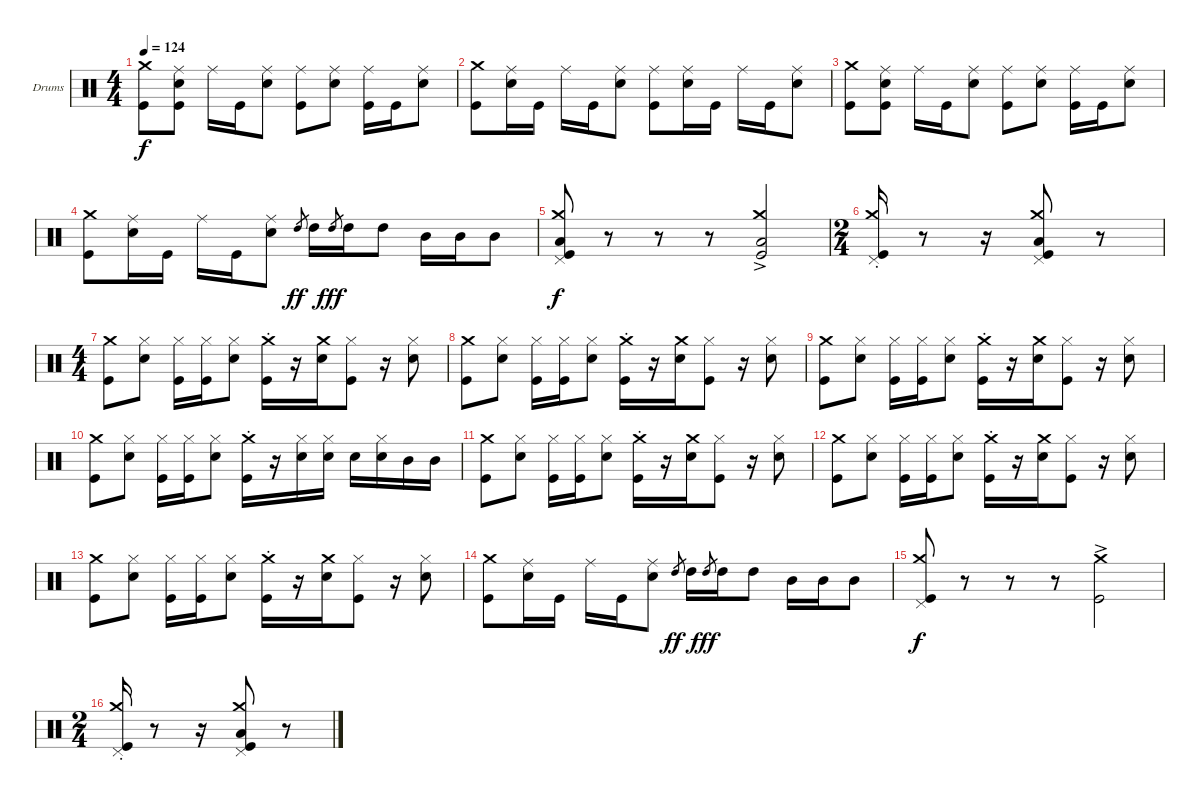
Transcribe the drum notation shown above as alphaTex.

\defaultSystemsLayout 4
\bracketExtendMode groupsimilarinstruments
\firstSystemTrackNameOrientation horizontal
\otherSystemsTrackNameOrientation horizontal
\track ("Drumkit" "Drums") {instrument percussion}
\staff {score}
\articulation defaults
\ts (4 4)
\tempo 124
\clef neutral
\ks c
("Kick (hit)" "Crash medium (hit)").8{dy f} ("Snare (hit) 2" "Ride (middle)" "Kick (hit)").8 "Ride (middle)".16 "Kick (hit)".16 ("Snare (hit) 2" "Ride (middle)").8 ("Kick (hit)" "Ride (middle)").8 ("Snare (hit) 2" "Ride (middle)").8 ("Kick (hit)" "Ride (middle)").16 "Kick (hit)".16 ("Snare (hit) 2" "Ride (middle)").8 |
("Kick (hit)" "Crash medium (hit)").8 ("Snare (hit) 2" "Ride (middle)").16 "Kick (hit)".16 "Ride (middle)".16 "Kick (hit)".16 ("Snare (hit) 2" "Ride (middle)").8 ("Kick (hit)" "Ride (middle)").8 ("Snare (hit) 2" "Ride (middle)").16 "Kick (hit)".16 "Ride (middle)".16 "Kick (hit)".16 ("Snare (hit) 2" "Ride (middle)").8 |
("Kick (hit)" "Crash medium (hit)").8 ("Snare (hit) 2" "Ride (middle)" "Kick (hit)").8 "Ride (middle)".16 "Kick (hit)".16 ("Snare (hit) 2" "Ride (middle)").8 ("Kick (hit)" "Ride (middle)").8 ("Snare (hit) 2" "Ride (middle)").8 ("Kick (hit)" "Ride (middle)").16 "Kick (hit)".16 ("Snare (hit) 2" "Ride (middle)").8 |
("Kick (hit)" "Crash medium (hit)").8 ("Snare (hit) 2" "Ride (middle)").16 "Kick (hit)".16 "Ride (middle)".16 "Kick (hit)".16 ("Snare (hit) 2" "Ride (middle)").8 "High Tom (hit)".8{gr dy ff} "High Tom (hit)".16 "High Tom (hit)".8{gr dy fff} "High Tom (hit)".16 "High Tom (hit)".8 "Mid Tom (hit)".16 "Mid Tom (hit)".16 "Mid Tom (hit)".8 |
("Kick (hit)" "Crash medium (hit)" "Pedal Hi-Hat (hit)" "Low Tom (hit)").8{dy f} r.8 r.8 r.8 ("Kick (hit)"{ac} "Crash medium (hit)"{ac} "Low Tom (hit)"{ac}).2 |
\ts (2 4)
("Kick (hit)" "Crash medium (hit)"{st} "Pedal Hi-Hat (hit)").16 r.8 r.16 ("Pedal Hi-Hat (hit)" "Kick (hit)" "Low Tom (hit)" "Crash medium (hit)").8 r.8 |
\ts (4 4)
("Kick (hit)" "Crash medium (hit)").8 ("Snare (hit) 2" "Hi-Hat (closed)").8 ("Hi-Hat (closed)" "Kick (hit)").16 ("Kick (hit)" "Hi-Hat (closed)").16 ("Snare (hit) 2" "Hi-Hat (closed)").8 ("Kick (hit)"{st} "Crash medium (hit)"{st}).16 r.16 ("Crash medium (hit)" "Snare (hit) 2").16 ("Kick (hit)" "Hi-Hat (closed)").8 r.16 ("Hi-Hat (closed)" "Snare (hit) 2").8 |
("Kick (hit)" "Crash medium (hit)").8 ("Snare (hit) 2" "Hi-Hat (closed)").8 ("Hi-Hat (closed)" "Kick (hit)").16 ("Kick (hit)" "Hi-Hat (closed)").16 ("Snare (hit) 2" "Hi-Hat (closed)").8 ("Kick (hit)"{st} "Crash medium (hit)"{st}).16 r.16 ("Crash medium (hit)" "Snare (hit) 2").16 ("Kick (hit)" "Hi-Hat (closed)").8 r.16 ("Hi-Hat (closed)" "Snare (hit) 2").8 |
("Kick (hit)" "Crash medium (hit)").8 ("Snare (hit) 2" "Hi-Hat (closed)").8 ("Hi-Hat (closed)" "Kick (hit)").16 ("Kick (hit)" "Hi-Hat (closed)").16 ("Snare (hit) 2" "Hi-Hat (closed)").8 ("Kick (hit)"{st} "Crash medium (hit)"{st}).16 r.16 ("Crash medium (hit)" "Snare (hit) 2").16 ("Kick (hit)" "Hi-Hat (closed)").8 r.16 ("Hi-Hat (closed)" "Snare (hit) 2").8 |
("Kick (hit)" "Crash medium (hit)").8 ("Snare (hit) 2" "Hi-Hat (closed)").8 ("Hi-Hat (closed)" "Kick (hit)").16 ("Kick (hit)" "Hi-Hat (closed)").16 ("Snare (hit) 2" "Hi-Hat (closed)").8 ("Kick (hit)"{st} "Crash medium (hit)"{st}).16 r.16 ("Snare (hit) 2" "Hi-Hat (closed)").16 ("Hi-Hat (closed)" "Snare (hit) 2").16 "Snare (hit) 2".16 ("Hi-Hat (closed)" "Snare (hit) 2").16 "Mid Tom (hit)".16 "Mid Tom (hit)".16 |
("Kick (hit)" "Crash medium (hit)").8 ("Snare (hit) 2" "Hi-Hat (closed)").8 ("Hi-Hat (closed)" "Kick (hit)").16 ("Kick (hit)" "Hi-Hat (closed)").16 ("Snare (hit) 2" "Hi-Hat (closed)").8 ("Kick (hit)"{st} "Crash medium (hit)"{st}).16 r.16 ("Crash medium (hit)" "Snare (hit) 2").16 ("Kick (hit)" "Hi-Hat (closed)").8 r.16 ("Hi-Hat (closed)" "Snare (hit) 2").8 |
("Kick (hit)" "Crash medium (hit)").8 ("Snare (hit) 2" "Hi-Hat (closed)").8 ("Hi-Hat (closed)" "Kick (hit)").16 ("Kick (hit)" "Hi-Hat (closed)").16 ("Snare (hit) 2" "Hi-Hat (closed)").8 ("Kick (hit)"{st} "Crash medium (hit)"{st}).16 r.16 ("Crash medium (hit)" "Snare (hit) 2").16 ("Kick (hit)" "Hi-Hat (closed)").8 r.16 ("Hi-Hat (closed)" "Snare (hit) 2").8 |
("Kick (hit)" "Crash medium (hit)").8 ("Snare (hit) 2" "Hi-Hat (closed)").8 ("Hi-Hat (closed)" "Kick (hit)").16 ("Kick (hit)" "Hi-Hat (closed)").16 ("Snare (hit) 2" "Hi-Hat (closed)").8 ("Kick (hit)"{st} "Crash medium (hit)"{st}).16 r.16 ("Crash medium (hit)" "Snare (hit) 2").16 ("Kick (hit)" "Hi-Hat (closed)").8 r.16 ("Hi-Hat (closed)" "Snare (hit) 2").8 |
("Kick (hit)" "Crash medium (hit)").8 ("Snare (hit) 2" "Ride (middle)").16 "Kick (hit)".16 "Ride (middle)".16 "Kick (hit)".16 ("Snare (hit) 2" "Ride (middle)").8 "High Tom (hit)".8{gr dy ff} "High Tom (hit)".16 "High Tom (hit)".8{gr dy fff} "High Tom (hit)".16 "High Tom (hit)".8 "Mid Tom (hit)".16 "Mid Tom (hit)".16 "Mid Tom (hit)".8 |
("Kick (hit)" "Crash medium (hit)" "Pedal Hi-Hat (hit)").8{dy f} r.8 r.8 r.8 ("Kick (hit)"{ac} "Crash medium (hit)"{ac}).2 |
\ts (2 4)
("Kick (hit)" "Crash medium (hit)"{st} "Pedal Hi-Hat (hit)").16 r.8 r.16 ("Pedal Hi-Hat (hit)" "Kick (hit)" "Low Tom (hit)" "Crash medium (hit)").8 r.8
